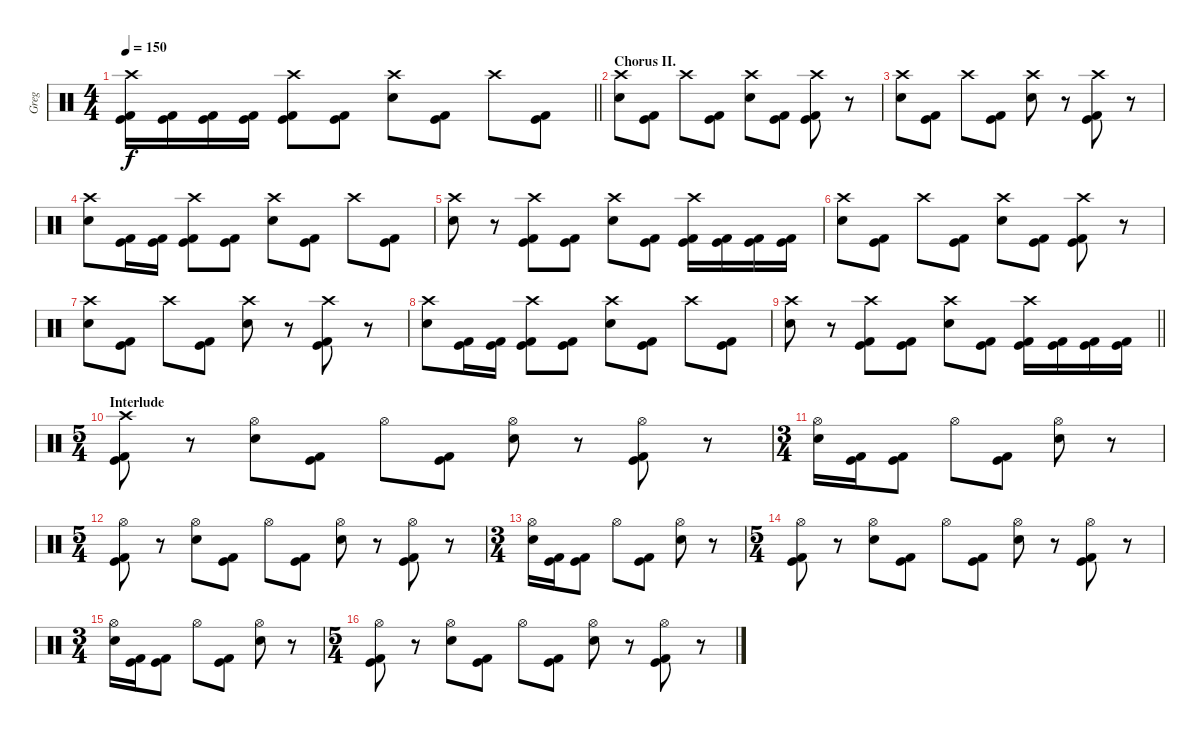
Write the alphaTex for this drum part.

\track ("Greg" "Greg") {instrument percussion}
\staff {score}
\articulation defaults
\ts (4 4)
\tempo 150
\clef neutral
\barLineRight lightlight
\ks c
("Crash high (hit)" "Kick (hit)" "Kick (hit) 2").16{dy f} ("Kick (hit)" "Kick (hit) 2").16 ("Kick (hit)" "Kick (hit) 2").16 ("Kick (hit)" "Kick (hit) 2").16 ("Crash high (hit)" "Kick (hit)" "Kick (hit) 2").8 ("Kick (hit)" "Kick (hit) 2").8 ("Crash high (hit)" "Snare (hit) 2").8 ("Kick (hit)" "Kick (hit) 2").8 "Crash high (hit)".8 ("Kick (hit)" "Kick (hit) 2").8 |
\section ("" "Chorus II.")
("Crash high (hit)" "Snare (hit) 2").8 ("Kick (hit)" "Kick (hit) 2").8 "Crash high (hit)".8 ("Kick (hit)" "Kick (hit) 2").8 ("Crash high (hit)" "Snare (hit) 2").8 ("Kick (hit)" "Kick (hit) 2").8 ("Crash high (hit)" "Kick (hit)" "Kick (hit) 2").8 r.8 |
("Crash high (hit)" "Snare (hit) 2").8 ("Kick (hit)" "Kick (hit) 2").8 "Crash high (hit)".8 ("Kick (hit)" "Kick (hit) 2").8 ("Crash high (hit)" "Snare (hit) 2").8 r.8 ("Crash high (hit)" "Kick (hit)" "Kick (hit) 2").8 r.8 |
("Crash high (hit)" "Snare (hit) 2").8 ("Kick (hit)" "Kick (hit) 2").16 ("Kick (hit)" "Kick (hit) 2").16 ("Crash high (hit)" "Kick (hit)" "Kick (hit) 2").8 ("Kick (hit)" "Kick (hit) 2").8 ("Crash high (hit)" "Snare (hit) 2").8 ("Kick (hit)" "Kick (hit) 2").8 "Crash high (hit)".8 ("Kick (hit)" "Kick (hit) 2").8 |
("Crash high (hit)" "Snare (hit) 2").8 r.8 ("Crash high (hit)" "Kick (hit)" "Kick (hit) 2").8 ("Kick (hit)" "Kick (hit) 2").8 ("Crash high (hit)" "Snare (hit) 2").8 ("Kick (hit)" "Kick (hit) 2").8 ("Crash high (hit)" "Kick (hit)" "Kick (hit) 2").16 ("Kick (hit)" "Kick (hit) 2").16 ("Kick (hit)" "Kick (hit) 2").16 ("Kick (hit)" "Kick (hit) 2").16 |
("Crash high (hit)" "Snare (hit) 2").8 ("Kick (hit)" "Kick (hit) 2").8 "Crash high (hit)".8 ("Kick (hit)" "Kick (hit) 2").8 ("Crash high (hit)" "Snare (hit) 2").8 ("Kick (hit)" "Kick (hit) 2").8 ("Crash high (hit)" "Kick (hit)" "Kick (hit) 2").8 r.8 |
("Crash high (hit)" "Snare (hit) 2").8 ("Kick (hit)" "Kick (hit) 2").8 "Crash high (hit)".8 ("Kick (hit)" "Kick (hit) 2").8 ("Crash high (hit)" "Snare (hit) 2").8 r.8 ("Crash high (hit)" "Kick (hit)" "Kick (hit) 2").8 r.8 |
("Crash high (hit)" "Snare (hit) 2").8 ("Kick (hit)" "Kick (hit) 2").16 ("Kick (hit)" "Kick (hit) 2").16 ("Crash high (hit)" "Kick (hit)" "Kick (hit) 2").8 ("Kick (hit)" "Kick (hit) 2").8 ("Crash high (hit)" "Snare (hit) 2").8 ("Kick (hit)" "Kick (hit) 2").8 "Crash high (hit)".8 ("Kick (hit)" "Kick (hit) 2").8 |
\barLineRight lightlight
("Crash high (hit)" "Snare (hit) 2").8 r.8 ("Crash high (hit)" "Kick (hit)" "Kick (hit) 2").8 ("Kick (hit)" "Kick (hit) 2").8 ("Crash high (hit)" "Snare (hit) 2").8 ("Kick (hit)" "Kick (hit) 2").8 ("Crash high (hit)" "Kick (hit)" "Kick (hit) 2").16 ("Kick (hit)" "Kick (hit) 2").16 ("Kick (hit)" "Kick (hit) 2").16 ("Kick (hit)" "Kick (hit) 2").16 |
\ts (5 4)
\section ("" "Interlude")
("Crash high (hit)" "Kick (hit)" "Kick (hit) 2").8 r.8 ("Hi-Hat (open)" "Snare (hit) 2").8 ("Kick (hit)" "Kick (hit) 2").8 "Hi-Hat (open)".8 ("Kick (hit)" "Kick (hit) 2").8 ("Hi-Hat (open)" "Snare (hit) 2").8 r.8 ("Hi-Hat (open)" "Kick (hit)" "Kick (hit) 2").8 r.8 |
\ts (3 4)
("Hi-Hat (open)" "Snare (hit) 2").16 ("Kick (hit)" "Kick (hit) 2").16 ("Kick (hit)" "Kick (hit) 2").8 "Hi-Hat (open)".8 ("Kick (hit)" "Kick (hit) 2").8 ("Hi-Hat (open)" "Snare (hit) 2").8 r.8 |
\ts (5 4)
("Hi-Hat (open)" "Kick (hit)" "Kick (hit) 2").8 r.8 ("Hi-Hat (open)" "Snare (hit) 2").8 ("Kick (hit)" "Kick (hit) 2").8 "Hi-Hat (open)".8 ("Kick (hit)" "Kick (hit) 2").8 ("Hi-Hat (open)" "Snare (hit) 2").8 r.8 ("Hi-Hat (open)" "Kick (hit)" "Kick (hit) 2").8 r.8 |
\ts (3 4)
("Hi-Hat (open)" "Snare (hit) 2").16 ("Kick (hit)" "Kick (hit) 2").16 ("Kick (hit)" "Kick (hit) 2").8 "Hi-Hat (open)".8 ("Kick (hit)" "Kick (hit) 2").8 ("Hi-Hat (open)" "Snare (hit) 2").8 r.8 |
\ts (5 4)
("Hi-Hat (open)" "Kick (hit)" "Kick (hit) 2").8 r.8 ("Hi-Hat (open)" "Snare (hit) 2").8 ("Kick (hit)" "Kick (hit) 2").8 "Hi-Hat (open)".8 ("Kick (hit)" "Kick (hit) 2").8 ("Hi-Hat (open)" "Snare (hit) 2").8 r.8 ("Hi-Hat (open)" "Kick (hit)" "Kick (hit) 2").8 r.8 |
\ts (3 4)
("Hi-Hat (open)" "Snare (hit) 2").16 ("Kick (hit)" "Kick (hit) 2").16 ("Kick (hit)" "Kick (hit) 2").8 "Hi-Hat (open)".8 ("Kick (hit)" "Kick (hit) 2").8 ("Hi-Hat (open)" "Snare (hit) 2").8 r.8 |
\ts (5 4)
("Hi-Hat (open)" "Kick (hit)" "Kick (hit) 2").8 r.8 ("Hi-Hat (open)" "Snare (hit) 2").8 ("Kick (hit)" "Kick (hit) 2").8 "Hi-Hat (open)".8 ("Kick (hit)" "Kick (hit) 2").8 ("Hi-Hat (open)" "Snare (hit) 2").8 r.8 ("Hi-Hat (open)" "Kick (hit)" "Kick (hit) 2").8 r.8
